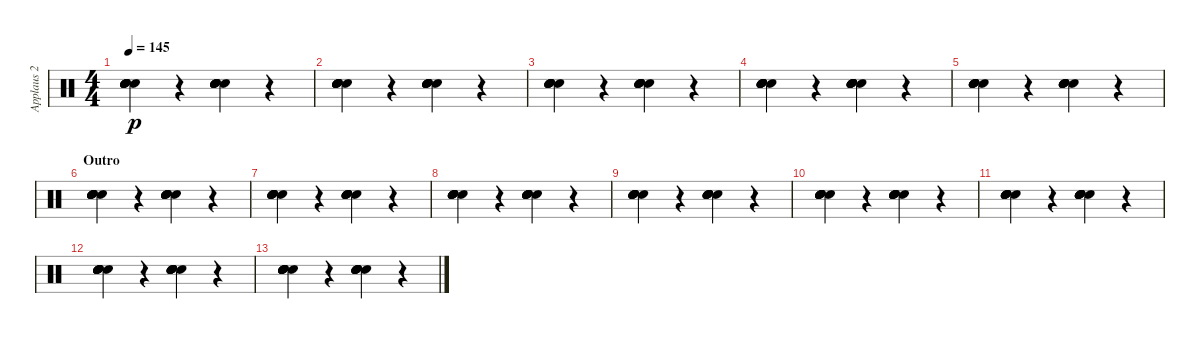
\track ("Applaus 2" "Applaus 2") {instrument percussion}
\staff {score}
\articulation defaults
\ts (4 4)
\tempo 145
\clef neutral
\ks c
("Hand Clap (hit)" "Hand Clap (hit)" "Hand Clap (hit)" "Hand Clap (hit)" "Hand Clap (hit)" "Hand Clap (hit)").4{bd 60 dy p} r.4 ("Hand Clap (hit)" "Hand Clap (hit)" "Hand Clap (hit)" "Hand Clap (hit)" "Hand Clap (hit)" "Hand Clap (hit)").4{bd 60} r.4 |
("Hand Clap (hit)" "Hand Clap (hit)" "Hand Clap (hit)" "Hand Clap (hit)" "Hand Clap (hit)" "Hand Clap (hit)").4{bd 60} r.4 ("Hand Clap (hit)" "Hand Clap (hit)" "Hand Clap (hit)" "Hand Clap (hit)" "Hand Clap (hit)" "Hand Clap (hit)").4{bd 60} r.4 |
("Hand Clap (hit)" "Hand Clap (hit)" "Hand Clap (hit)" "Hand Clap (hit)" "Hand Clap (hit)" "Hand Clap (hit)").4{bd 60} r.4 ("Hand Clap (hit)" "Hand Clap (hit)" "Hand Clap (hit)" "Hand Clap (hit)" "Hand Clap (hit)" "Hand Clap (hit)").4{bd 60} r.4 |
("Hand Clap (hit)" "Hand Clap (hit)" "Hand Clap (hit)" "Hand Clap (hit)" "Hand Clap (hit)" "Hand Clap (hit)").4{bd 60} r.4 ("Hand Clap (hit)" "Hand Clap (hit)" "Hand Clap (hit)" "Hand Clap (hit)" "Hand Clap (hit)" "Hand Clap (hit)").4{bd 60} r.4 |
("Hand Clap (hit)" "Hand Clap (hit)" "Hand Clap (hit)" "Hand Clap (hit)" "Hand Clap (hit)" "Hand Clap (hit)").4{bd 60} r.4 ("Hand Clap (hit)" "Hand Clap (hit)" "Hand Clap (hit)" "Hand Clap (hit)" "Hand Clap (hit)" "Hand Clap (hit)").4{bd 60} r.4 |
\section ("" "Outro")
("Hand Clap (hit)" "Hand Clap (hit)" "Hand Clap (hit)" "Hand Clap (hit)" "Hand Clap (hit)" "Hand Clap (hit)").4{bd 60} r.4 ("Hand Clap (hit)" "Hand Clap (hit)" "Hand Clap (hit)" "Hand Clap (hit)" "Hand Clap (hit)" "Hand Clap (hit)").4{bd 60} r.4 |
("Hand Clap (hit)" "Hand Clap (hit)" "Hand Clap (hit)" "Hand Clap (hit)" "Hand Clap (hit)" "Hand Clap (hit)").4{bd 60} r.4 ("Hand Clap (hit)" "Hand Clap (hit)" "Hand Clap (hit)" "Hand Clap (hit)" "Hand Clap (hit)" "Hand Clap (hit)").4{bd 60} r.4 |
("Hand Clap (hit)" "Hand Clap (hit)" "Hand Clap (hit)" "Hand Clap (hit)" "Hand Clap (hit)" "Hand Clap (hit)").4{bd 60} r.4 ("Hand Clap (hit)" "Hand Clap (hit)" "Hand Clap (hit)" "Hand Clap (hit)" "Hand Clap (hit)" "Hand Clap (hit)").4{bd 60} r.4 |
("Hand Clap (hit)" "Hand Clap (hit)" "Hand Clap (hit)" "Hand Clap (hit)" "Hand Clap (hit)" "Hand Clap (hit)").4{bd 60} r.4 ("Hand Clap (hit)" "Hand Clap (hit)" "Hand Clap (hit)" "Hand Clap (hit)" "Hand Clap (hit)" "Hand Clap (hit)").4{bd 60} r.4 |
("Hand Clap (hit)" "Hand Clap (hit)" "Hand Clap (hit)" "Hand Clap (hit)" "Hand Clap (hit)" "Hand Clap (hit)").4{bd 60} r.4 ("Hand Clap (hit)" "Hand Clap (hit)" "Hand Clap (hit)" "Hand Clap (hit)" "Hand Clap (hit)" "Hand Clap (hit)").4{bd 60} r.4 |
("Hand Clap (hit)" "Hand Clap (hit)" "Hand Clap (hit)" "Hand Clap (hit)" "Hand Clap (hit)" "Hand Clap (hit)").4{bd 60} r.4 ("Hand Clap (hit)" "Hand Clap (hit)" "Hand Clap (hit)" "Hand Clap (hit)" "Hand Clap (hit)" "Hand Clap (hit)").4{bd 60} r.4 |
("Hand Clap (hit)" "Hand Clap (hit)" "Hand Clap (hit)" "Hand Clap (hit)" "Hand Clap (hit)" "Hand Clap (hit)").4{bd 60} r.4 ("Hand Clap (hit)" "Hand Clap (hit)" "Hand Clap (hit)" "Hand Clap (hit)" "Hand Clap (hit)" "Hand Clap (hit)").4{bd 60} r.4 |
("Hand Clap (hit)" "Hand Clap (hit)" "Hand Clap (hit)" "Hand Clap (hit)" "Hand Clap (hit)" "Hand Clap (hit)").4{bd 60} r.4 ("Hand Clap (hit)" "Hand Clap (hit)" "Hand Clap (hit)" "Hand Clap (hit)" "Hand Clap (hit)" "Hand Clap (hit)").4{bd 60} r.4
